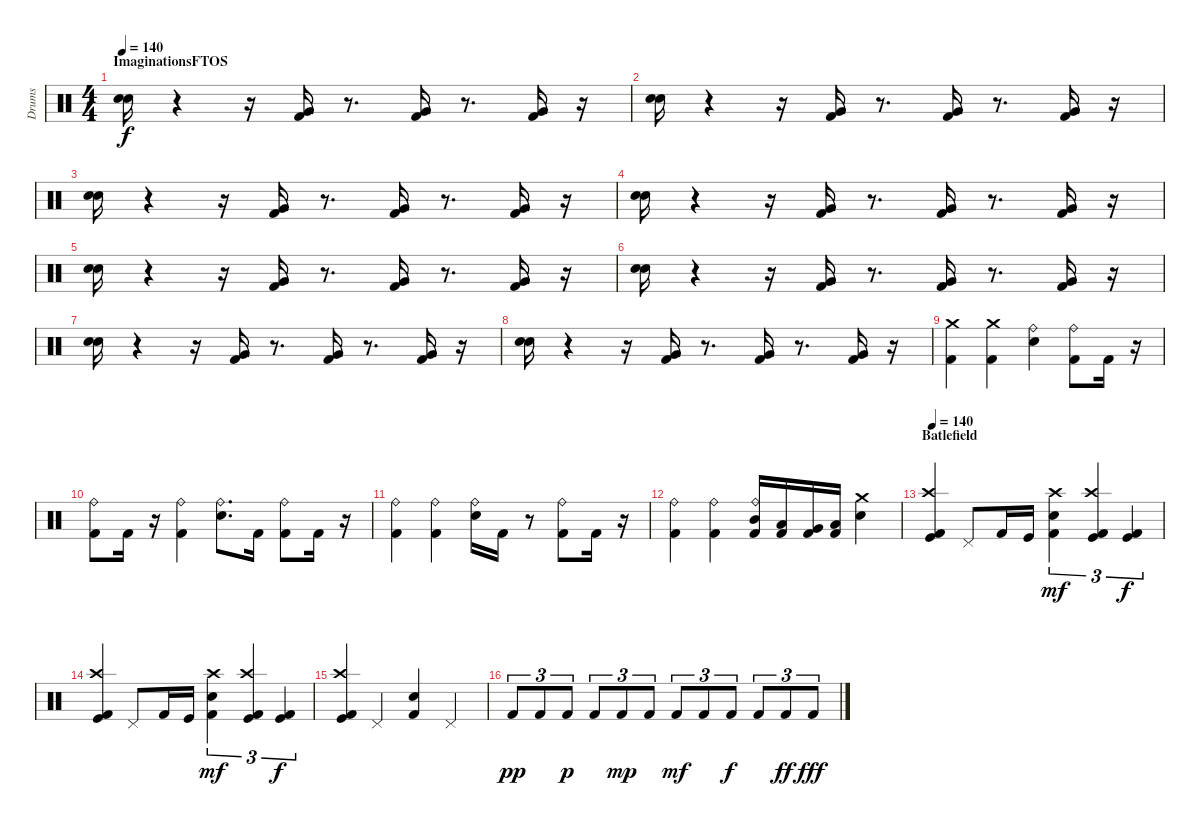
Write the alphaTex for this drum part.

\track ("Drums" "Drums") {instrument percussion}
\staff {score}
\articulation defaults
\ts (4 4)
\section ("" "ImaginationsFTOS")
\tempo 140
\clef neutral
\ks c
("Snare (hit) 2" "Electric Snare (hit)").16{dy f} r.4 r.16 ("Kick (hit) 2" "Very Low Tom (hit)").16 r.8{d} ("Kick (hit) 2" "Very Low Tom (hit)").16 r.8{d} ("Kick (hit) 2" "Very Low Tom (hit)").16 r.16 |
("Snare (hit) 2" "Electric Snare (hit)").16 r.4 r.16 ("Kick (hit) 2" "Very Low Tom (hit)").16 r.8{d} ("Kick (hit) 2" "Very Low Tom (hit)").16 r.8{d} ("Kick (hit) 2" "Very Low Tom (hit)").16 r.16 |
("Snare (hit) 2" "Electric Snare (hit)").16 r.4 r.16 ("Kick (hit) 2" "Very Low Tom (hit)").16 r.8{d} ("Kick (hit) 2" "Very Low Tom (hit)").16 r.8{d} ("Kick (hit) 2" "Very Low Tom (hit)").16 r.16 |
("Snare (hit) 2" "Electric Snare (hit)").16 r.4 r.16 ("Kick (hit) 2" "Very Low Tom (hit)").16 r.8{d} ("Kick (hit) 2" "Very Low Tom (hit)").16 r.8{d} ("Kick (hit) 2" "Very Low Tom (hit)").16 r.16 |
("Snare (hit) 2" "Electric Snare (hit)").16 r.4 r.16 ("Kick (hit) 2" "Very Low Tom (hit)").16 r.8{d} ("Kick (hit) 2" "Very Low Tom (hit)").16 r.8{d} ("Kick (hit) 2" "Very Low Tom (hit)").16 r.16 |
("Snare (hit) 2" "Electric Snare (hit)").16 r.4 r.16 ("Kick (hit) 2" "Very Low Tom (hit)").16 r.8{d} ("Kick (hit) 2" "Very Low Tom (hit)").16 r.8{d} ("Kick (hit) 2" "Very Low Tom (hit)").16 r.16 |
("Snare (hit) 2" "Electric Snare (hit)").16 r.4 r.16 ("Kick (hit) 2" "Very Low Tom (hit)").16 r.8{d} ("Kick (hit) 2" "Very Low Tom (hit)").16 r.8{d} ("Kick (hit) 2" "Very Low Tom (hit)").16 r.16 |
("Snare (hit) 2" "Electric Snare (hit)").16 r.4 r.16 ("Kick (hit) 2" "Very Low Tom (hit)").16 r.8{d} ("Kick (hit) 2" "Very Low Tom (hit)").16 r.8{d} ("Kick (hit) 2" "Very Low Tom (hit)").16 r.16 |
("Kick (hit) 2" "Crash medium (hit)").4 ("Kick (hit) 2" "Crash medium (hit)").4 ("Electric Snare (hit)" "Ride (bell)").4 ("Kick (hit) 2" "Ride (bell)").8 "Kick (hit) 2".16 r.16 |
("Kick (hit) 2" "Ride (bell)").8 "Kick (hit) 2".16 r.16 ("Kick (hit) 2" "Ride (bell)").4 ("Electric Snare (hit)" "Ride (bell)").8{d} "Kick (hit) 2".16 ("Kick (hit) 2" "Ride (bell)").8 "Kick (hit) 2".16 r.16 |
("Kick (hit) 2" "Ride (bell)").4 ("Kick (hit) 2" "Ride (bell)").4 ("Electric Snare (hit)" "Ride (bell)").16 "Kick (hit) 2".16 r.8 ("Kick (hit) 2" "Ride (bell)").8 "Kick (hit) 2".16 r.16 |
("Kick (hit) 2" "Ride (bell)").4 ("Kick (hit) 2" "Ride (bell)").4 ("Kick (hit) 2" "Mid Tom (hit)" "Ride (bell)").16 ("Kick (hit) 2" "Low Tom (hit)").16 ("Kick (hit) 2" "Very Low Tom (hit)").16 ("Kick (hit) 2" "Low Floor Tom (hit)").16 ("Electric Snare (hit)" "Crash medium (hit)").4 |
\section ("" "Batlefield")
\tempo 140
("Kick (hit) 2" "Crash high (hit)" "Kick (hit)").4 "Pedal Hi-Hat (hit)".8 "Kick (hit) 2".16 "Kick (hit)".16 ("Kick (hit) 2" "Snare (hit) 2" "Crash high (hit)").4{tu (3 2) dy mf} ("Kick (hit) 2" "Kick (hit)" "Crash high (hit)").4{tu (3 2)} ("Kick (hit) 2" "Kick (hit)").4{tu (3 2) dy f} |
("Kick (hit) 2" "Crash high (hit)" "Kick (hit)").4 "Pedal Hi-Hat (hit)".8 "Kick (hit) 2".16 "Kick (hit)".16 ("Kick (hit) 2" "Snare (hit) 2" "Crash high (hit)").4{tu (3 2) dy mf} ("Kick (hit) 2" "Kick (hit)" "Crash high (hit)").4{tu (3 2)} ("Kick (hit) 2" "Kick (hit)").4{tu (3 2) dy f} |
("Kick (hit) 2" "Kick (hit)" "Crash high (hit)").4 "Pedal Hi-Hat (hit)".4 ("Kick (hit) 2" "Snare (hit) 2").4 "Pedal Hi-Hat (hit)".4 |
"Kick (hit) 2".8{tu (3 2) dy pp} "Kick (hit) 2".8{tu (3 2)} "Kick (hit) 2".8{tu (3 2) dy p} "Kick (hit) 2".8{tu (3 2)} "Kick (hit) 2".8{tu (3 2) dy mp} "Kick (hit) 2".8{tu (3 2)} "Kick (hit) 2".8{tu (3 2) dy mf} "Kick (hit) 2".8{tu (3 2)} "Kick (hit) 2".8{tu (3 2) dy f} "Kick (hit) 2".8{tu (3 2)} "Kick (hit) 2".8{tu (3 2) dy ff} "Kick (hit) 2".8{tu (3 2) dy fff}
